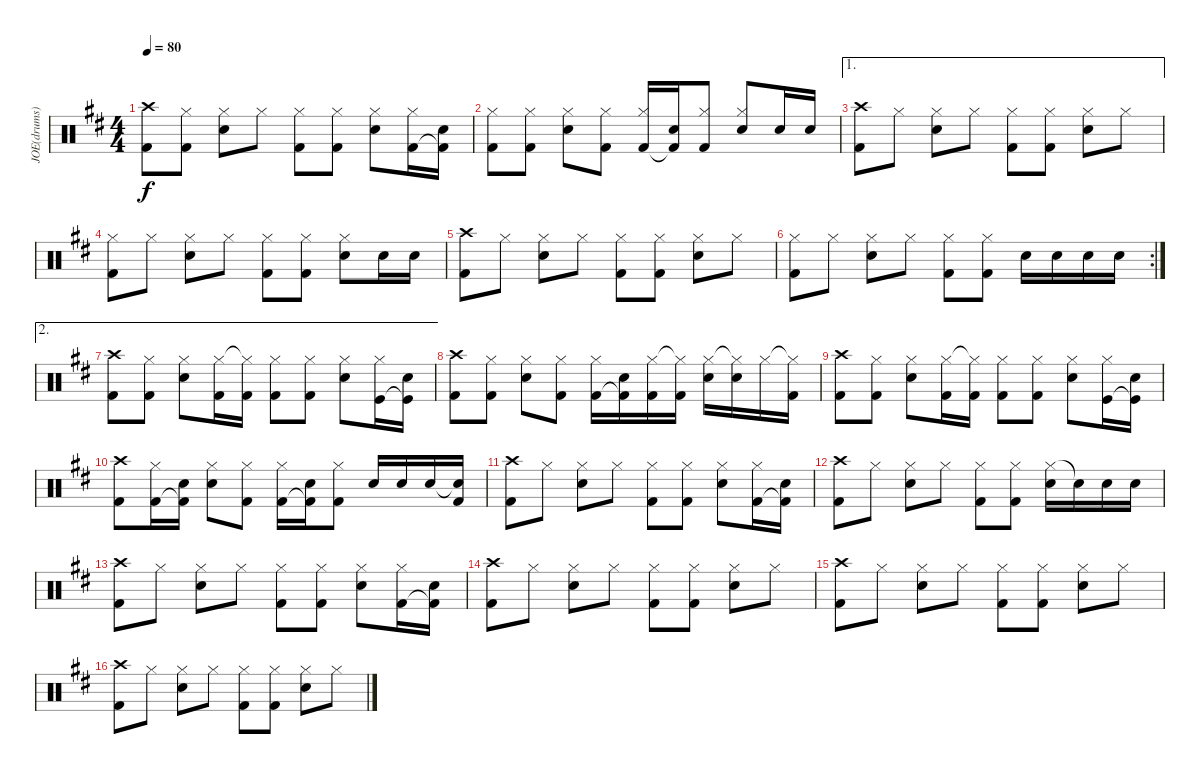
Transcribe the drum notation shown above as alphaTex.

\track ("JOE(drums)" "JOE(drums)") {instrument percussion}
\staff {score}
\articulation defaults
\ts (4 4)
\tempo 80
\clef neutral
\ks d
("Crash high (hit)" "Kick (hit) 2").8{dy f} ("Hi-Hat (closed)" "Kick (hit) 2").8 ("Hi-Hat (closed)" "Snare (hit) 2").8 "Hi-Hat (closed)".8 ("Hi-Hat (closed)" "Kick (hit) 2").8 ("Hi-Hat (closed)" "Kick (hit) 2").8 ("Snare (hit) 2" "Hi-Hat (closed)").8 ("Hi-Hat (closed)" "Kick (hit) 2").16 ("Snare (hit) 2" "Kick (hit) 2"{t}).16 |
("Hi-Hat (closed)" "Kick (hit) 2").8 ("Hi-Hat (closed)" "Kick (hit) 2").8 ("Hi-Hat (closed)" "Snare (hit) 2").8 ("Hi-Hat (closed)" "Kick (hit) 2").8 ("Hi-Hat (closed)" "Kick (hit) 2").16 ("Snare (hit) 2" "Kick (hit) 2"{t}).16{beam Up} ("Hi-Hat (closed)" "Kick (hit) 2").8{beam Up} ("Hi-Hat (closed)" "Snare (hit) 2").8{beam Up} "Snare (hit) 2".16{beam Up} "Snare (hit) 2".16{beam Up} |
\ae 1
("Crash high (hit)" "Kick (hit) 2").8 "Hi-Hat (closed)".8 ("Hi-Hat (closed)" "Snare (hit) 2").8 "Hi-Hat (closed)".8 ("Hi-Hat (closed)" "Kick (hit) 2").8 ("Hi-Hat (closed)" "Kick (hit) 2").8 ("Hi-Hat (closed)" "Snare (hit) 2").8 "Hi-Hat (closed)".8 |
("Hi-Hat (closed)" "Kick (hit) 2").8 "Hi-Hat (closed)".8 ("Hi-Hat (closed)" "Snare (hit) 2").8 "Hi-Hat (closed)".8 ("Hi-Hat (closed)" "Kick (hit) 2").8 ("Hi-Hat (closed)" "Kick (hit) 2").8 ("Hi-Hat (closed)" "Snare (hit) 2").8 "Snare (hit) 2".16 "Snare (hit) 2".16 |
("Crash high (hit)" "Kick (hit) 2").8 "Hi-Hat (closed)".8 ("Hi-Hat (closed)" "Snare (hit) 2").8 "Hi-Hat (closed)".8 ("Hi-Hat (closed)" "Kick (hit) 2").8 ("Hi-Hat (closed)" "Kick (hit) 2").8 ("Hi-Hat (closed)" "Snare (hit) 2").8 "Hi-Hat (closed)".8 |
\rc 2
("Hi-Hat (closed)" "Kick (hit) 2").8 "Hi-Hat (closed)".8 ("Hi-Hat (closed)" "Snare (hit) 2").8 "Hi-Hat (closed)".8 ("Hi-Hat (closed)" "Kick (hit) 2").8 ("Hi-Hat (closed)" "Kick (hit) 2").8 "Snare (hit) 2".16 "Snare (hit) 2".16 "Snare (hit) 2".16 "Snare (hit) 2".16 |
\ae 2
("Crash high (hit)" "Kick (hit) 2").8 ("Hi-Hat (closed)" "Kick (hit) 2").8 ("Hi-Hat (closed)" "Snare (hit) 2").8 ("Hi-Hat (closed)" "Kick (hit) 2").16 ("Hi-Hat (closed)"{t} "Kick (hit) 2").16 ("Hi-Hat (closed)" "Kick (hit) 2").8 ("Hi-Hat (closed)" "Kick (hit) 2").8 ("Hi-Hat (closed)" "Snare (hit) 2").8 ("Hi-Hat (closed)" "Kick (hit)").16 ("Snare (hit) 2" "Kick (hit)"{t}).16 |
("Crash high (hit)" "Kick (hit) 2").8 ("Hi-Hat (closed)" "Kick (hit) 2").8 ("Hi-Hat (closed)" "Snare (hit) 2").8 ("Hi-Hat (closed)" "Kick (hit) 2").8 ("Hi-Hat (closed)" "Kick (hit) 2").16 ("Snare (hit) 2" "Kick (hit) 2"{t}).16 ("Hi-Hat (closed)" "Kick (hit) 2").16 ("Hi-Hat (closed)"{t} "Kick (hit) 2").16 ("Hi-Hat (closed)" "Snare (hit) 2").16 ("Hi-Hat (closed)"{t} "Snare (hit) 2").16 "Hi-Hat (closed)".16 ("Hi-Hat (closed)"{t} "Kick (hit) 2").16 |
("Crash high (hit)" "Kick (hit) 2").8 ("Hi-Hat (closed)" "Kick (hit) 2").8 ("Hi-Hat (closed)" "Snare (hit) 2").8 ("Hi-Hat (closed)" "Kick (hit) 2").16 ("Hi-Hat (closed)"{t} "Kick (hit) 2").16 ("Hi-Hat (closed)" "Kick (hit) 2").8 ("Hi-Hat (closed)" "Kick (hit) 2").8 ("Hi-Hat (closed)" "Snare (hit) 2").8 ("Hi-Hat (closed)" "Kick (hit)").16 ("Snare (hit) 2" "Kick (hit)"{t}).16 |
("Crash high (hit)" "Kick (hit) 2").8 ("Hi-Hat (closed)" "Kick (hit) 2").16 ("Snare (hit) 2" "Kick (hit) 2"{t}).16 ("Snare (hit) 2" "Hi-Hat (closed)").8 ("Hi-Hat (closed)" "Kick (hit) 2").8 ("Hi-Hat (closed)" "Kick (hit) 2").16 ("Snare (hit) 2" "Kick (hit) 2"{t}).16 ("Hi-Hat (closed)" "Kick (hit) 2").8 "Snare (hit) 2".16 "Snare (hit) 2".16 "Snare (hit) 2".16 ("Snare (hit) 2"{t} "Kick (hit) 2").16 |
("Crash high (hit)" "Kick (hit) 2").8 "Hi-Hat (closed)".8 ("Hi-Hat (closed)" "Snare (hit) 2").8 "Hi-Hat (closed)".8 ("Hi-Hat (closed)" "Kick (hit) 2").8 ("Hi-Hat (closed)" "Kick (hit) 2").8 ("Hi-Hat (closed)" "Snare (hit) 2").8 ("Hi-Hat (closed)" "Kick (hit) 2").16 ("Snare (hit) 2" "Kick (hit) 2"{t}).16 |
("Crash high (hit)" "Kick (hit) 2").8 "Hi-Hat (closed)".8 ("Hi-Hat (closed)" "Snare (hit) 2").8 "Hi-Hat (closed)".8 ("Hi-Hat (closed)" "Kick (hit) 2").8 ("Hi-Hat (closed)" "Kick (hit) 2").8 ("Hi-Hat (closed)" "Snare (hit) 2").16 "Snare (hit) 2"{t}.16 "Snare (hit) 2".16 "Snare (hit) 2".16 |
("Crash high (hit)" "Kick (hit) 2").8 "Hi-Hat (closed)".8 ("Hi-Hat (closed)" "Snare (hit) 2").8 "Hi-Hat (closed)".8 ("Kick (hit) 2" "Hi-Hat (closed)").8 ("Hi-Hat (closed)" "Kick (hit) 2").8 ("Hi-Hat (closed)" "Snare (hit) 2").8 ("Hi-Hat (closed)" "Kick (hit) 2").16 ("Snare (hit) 2" "Kick (hit) 2"{t}).16 |
("Crash high (hit)" "Kick (hit) 2").8 "Hi-Hat (closed)".8 ("Hi-Hat (closed)" "Snare (hit) 2").8 "Hi-Hat (closed)".8 ("Hi-Hat (closed)" "Kick (hit) 2").8 ("Hi-Hat (closed)" "Kick (hit) 2").8 ("Hi-Hat (closed)" "Snare (hit) 2").8 "Hi-Hat (closed)".8 |
("Crash high (hit)" "Kick (hit) 2").8 "Hi-Hat (closed)".8 ("Hi-Hat (closed)" "Snare (hit) 2").8 "Hi-Hat (closed)".8 ("Hi-Hat (closed)" "Kick (hit) 2").8 ("Hi-Hat (closed)" "Kick (hit) 2").8 ("Hi-Hat (closed)" "Snare (hit) 2").8 "Hi-Hat (closed)".8 |
("Crash high (hit)" "Kick (hit) 2").8 "Hi-Hat (closed)".8 ("Hi-Hat (closed)" "Snare (hit) 2").8 "Hi-Hat (closed)".8 ("Hi-Hat (closed)" "Kick (hit) 2").8 ("Hi-Hat (closed)" "Kick (hit) 2").8 ("Hi-Hat (closed)" "Snare (hit) 2").8 "Hi-Hat (closed)".8
